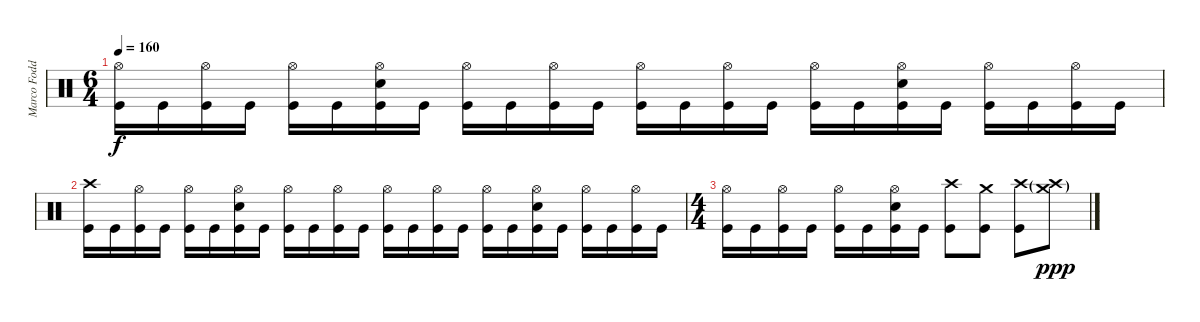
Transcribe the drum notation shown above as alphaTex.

\track ("Marco Foddis" "Marco Fodd") {instrument percussion}
\staff {score}
\articulation defaults
\ts (6 4)
\tempo 160
\clef neutral
\ks c
("Hi-Hat (open)" "Kick (hit)").16{dy f} "Kick (hit)".16 ("Hi-Hat (open)" "Kick (hit)").16 "Kick (hit)".16 ("Hi-Hat (open)" "Kick (hit)").16 "Kick (hit)".16 ("Hi-Hat (open)" "Snare (hit) 2" "Kick (hit)").16 "Kick (hit)".16 ("Hi-Hat (open)" "Kick (hit)").16 "Kick (hit)".16 ("Hi-Hat (open)" "Kick (hit)").16 "Kick (hit)".16 ("Hi-Hat (open)" "Kick (hit)").16 "Kick (hit)".16 ("Hi-Hat (open)" "Kick (hit)").16 "Kick (hit)".16 ("Hi-Hat (open)" "Kick (hit)").16 "Kick (hit)".16 ("Hi-Hat (open)" "Snare (hit) 2" "Kick (hit)").16 "Kick (hit)".16 ("Hi-Hat (open)" "Kick (hit)").16 "Kick (hit)".16 ("Hi-Hat (open)" "Kick (hit)").16 "Kick (hit)".16 |
("Crash high (hit)" "Kick (hit)").16 "Kick (hit)".16 ("Hi-Hat (open)" "Kick (hit)").16 "Kick (hit)".16 ("Hi-Hat (open)" "Kick (hit)").16 "Kick (hit)".16 ("Hi-Hat (open)" "Snare (hit) 2" "Kick (hit)").16 "Kick (hit)".16 ("Hi-Hat (open)" "Kick (hit)").16 "Kick (hit)".16 ("Hi-Hat (open)" "Kick (hit)").16 "Kick (hit)".16 ("Hi-Hat (open)" "Kick (hit)").16 "Kick (hit)".16 ("Hi-Hat (open)" "Kick (hit)").16 "Kick (hit)".16 ("Hi-Hat (open)" "Kick (hit)").16 "Kick (hit)".16 ("Hi-Hat (open)" "Snare (hit) 2" "Kick (hit)").16 "Kick (hit)".16 ("Hi-Hat (open)" "Kick (hit)").16 "Kick (hit)".16 ("Hi-Hat (open)" "Kick (hit)").16 "Kick (hit)".16 |
\ts (4 4)
("Hi-Hat (open)" "Kick (hit)").16 "Kick (hit)".16 ("Hi-Hat (open)" "Kick (hit)").16 "Kick (hit)".16 ("Hi-Hat (open)" "Kick (hit)").16 "Kick (hit)".16 ("Hi-Hat (open)" "Snare (hit) 2" "Kick (hit)").16 "Kick (hit)".16 ("Crash high (hit)" "Kick (hit)").8 ("Crash medium (hit)" "Kick (hit)").8 ("Crash high (hit)" "Kick (hit)").8 ("Crash high (hit)"{g} "Crash medium (hit)"{g}).8{dy ppp}
